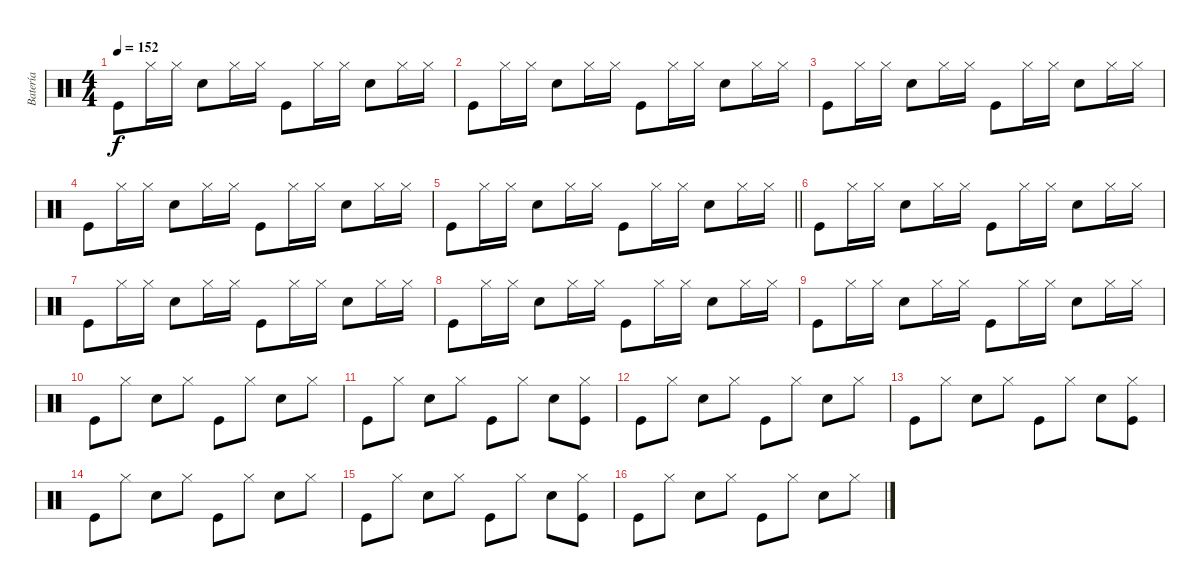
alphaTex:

\track ("Batería" "Batería") {instrument percussion}
\staff {score}
\articulation defaults
\ts (4 4)
\tempo 152
\clef neutral
\ks c "Kick (hit)".8{dy f} "Hi-Hat (closed)".16 "Hi-Hat (closed)".16 "Snare (hit) 2".8 "Hi-Hat (closed)".16 "Hi-Hat (closed)".16 "Kick (hit)".8 "Hi-Hat (closed)".16 "Hi-Hat (closed)".16 "Snare (hit) 2".8 "Hi-Hat (closed)".16 "Hi-Hat (closed)".16
|
"Kick (hit)".8 "Hi-Hat (closed)".16 "Hi-Hat (closed)".16 "Snare (hit) 2".8 "Hi-Hat (closed)".16 "Hi-Hat (closed)".16 "Kick (hit)".8 "Hi-Hat (closed)".16 "Hi-Hat (closed)".16 "Snare (hit) 2".8 "Hi-Hat (closed)".16 "Hi-Hat (closed)".16 |
"Kick (hit)".8 "Hi-Hat (closed)".16 "Hi-Hat (closed)".16 "Snare (hit) 2".8 "Hi-Hat (closed)".16 "Hi-Hat (closed)".16 "Kick (hit)".8 "Hi-Hat (closed)".16 "Hi-Hat (closed)".16 "Snare (hit) 2".8 "Hi-Hat (closed)".16 "Hi-Hat (closed)".16 |
"Kick (hit)".8 "Hi-Hat (closed)".16 "Hi-Hat (closed)".16 "Snare (hit) 2".8 "Hi-Hat (closed)".16 "Hi-Hat (closed)".16 "Kick (hit)".8 "Hi-Hat (closed)".16 "Hi-Hat (closed)".16 "Snare (hit) 2".8 "Hi-Hat (closed)".16 "Hi-Hat (closed)".16 |
\barLineRight lightlight "Kick (hit)".8 "Hi-Hat (closed)".16 "Hi-Hat (closed)".16 "Snare (hit) 2".8 "Hi-Hat (closed)".16 "Hi-Hat (closed)".16 "Kick (hit)".8 "Hi-Hat (closed)".16 "Hi-Hat (closed)".16 "Snare (hit) 2".8 "Hi-Hat (closed)".16 "Hi-Hat (closed)".16
|
"Kick (hit)".8 "Hi-Hat (closed)".16 "Hi-Hat (closed)".16 "Snare (hit) 2".8 "Hi-Hat (closed)".16 "Hi-Hat (closed)".16 "Kick (hit)".8 "Hi-Hat (closed)".16 "Hi-Hat (closed)".16 "Snare (hit) 2".8 "Hi-Hat (closed)".16 "Hi-Hat (closed)".16 |
"Kick (hit)".8 "Hi-Hat (closed)".16 "Hi-Hat (closed)".16 "Snare (hit) 2".8 "Hi-Hat (closed)".16 "Hi-Hat (closed)".16 "Kick (hit)".8 "Hi-Hat (closed)".16 "Hi-Hat (closed)".16 "Snare (hit) 2".8 "Hi-Hat (closed)".16 "Hi-Hat (closed)".16 |
"Kick (hit)".8 "Hi-Hat (closed)".16 "Hi-Hat (closed)".16 "Snare (hit) 2".8 "Hi-Hat (closed)".16 "Hi-Hat (closed)".16 "Kick (hit)".8 "Hi-Hat (closed)".16 "Hi-Hat (closed)".16 "Snare (hit) 2".8 "Hi-Hat (closed)".16 "Hi-Hat (closed)".16 |
"Kick (hit)".8 "Hi-Hat (closed)".16 "Hi-Hat (closed)".16 "Snare (hit) 2".8 "Hi-Hat (closed)".16 "Hi-Hat (closed)".16 "Kick (hit)".8 "Hi-Hat (closed)".16 "Hi-Hat (closed)".16 "Snare (hit) 2".8 "Hi-Hat (closed)".16 "Hi-Hat (closed)".16 |
"Kick (hit)".8 "Hi-Hat (closed)".8 "Snare (hit) 2".8 "Hi-Hat (closed)".8 "Kick (hit)".8 "Hi-Hat (closed)".8 "Snare (hit) 2".8 "Hi-Hat (closed)".8 |
"Kick (hit)".8 "Hi-Hat (closed)".8 "Snare (hit) 2".8 "Hi-Hat (closed)".8 "Kick (hit)".8 "Hi-Hat (closed)".8 "Snare (hit) 2".8 ("Kick (hit)" "Hi-Hat (closed)").8 |
"Kick (hit)".8 "Hi-Hat (closed)".8 "Snare (hit) 2".8 "Hi-Hat (closed)".8 "Kick (hit)".8 "Hi-Hat (closed)".8 "Snare (hit) 2".8 "Hi-Hat (closed)".8 |
"Kick (hit)".8 "Hi-Hat (closed)".8 "Snare (hit) 2".8 "Hi-Hat (closed)".8 "Kick (hit)".8 "Hi-Hat (closed)".8 "Snare (hit) 2".8 ("Kick (hit)" "Hi-Hat (closed)").8 |
"Kick (hit)".8 "Hi-Hat (closed)".8 "Snare (hit) 2".8 "Hi-Hat (closed)".8 "Kick (hit)".8 "Hi-Hat (closed)".8 "Snare (hit) 2".8 "Hi-Hat (closed)".8 |
"Kick (hit)".8 "Hi-Hat (closed)".8 "Snare (hit) 2".8 "Hi-Hat (closed)".8 "Kick (hit)".8 "Hi-Hat (closed)".8 "Snare (hit) 2".8 ("Kick (hit)" "Hi-Hat (closed)").8 |
"Kick (hit)".8 "Hi-Hat (closed)".8 "Snare (hit) 2".8 "Hi-Hat (closed)".8 "Kick (hit)".8 "Hi-Hat (closed)".8 "Snare (hit) 2".8 "Hi-Hat (closed)".8
